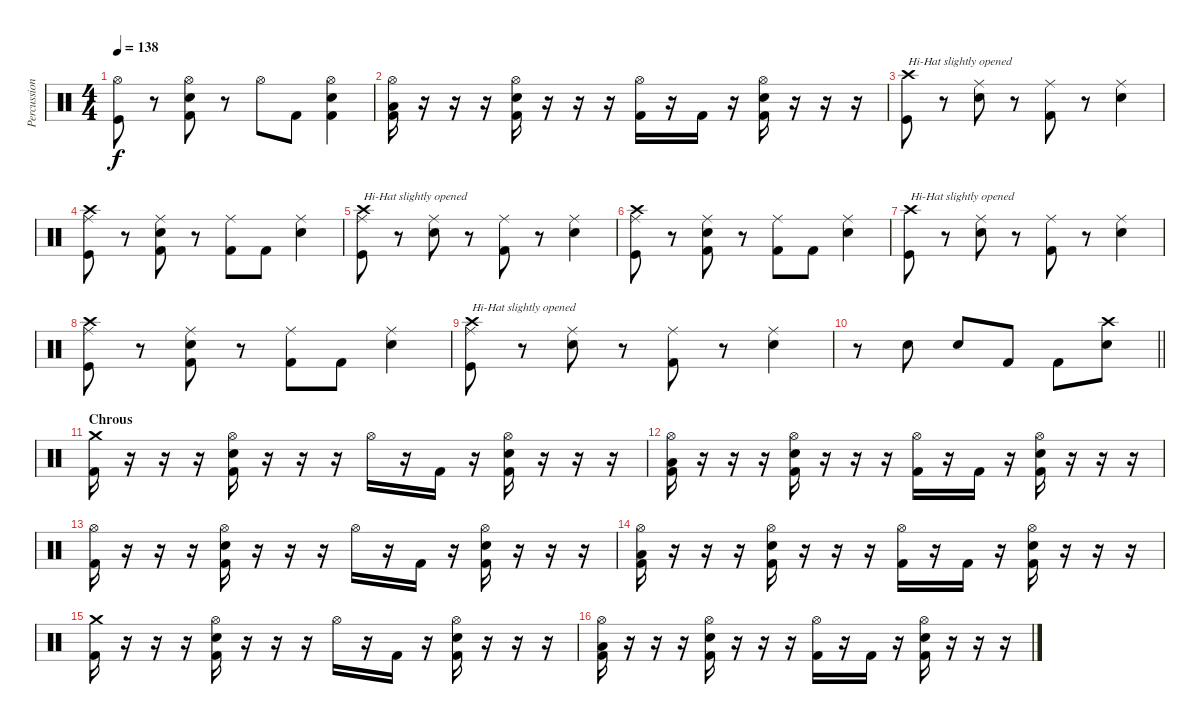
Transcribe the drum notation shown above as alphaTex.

\track ("Percussion" "Percussion") {instrument percussion}
\staff {score}
\articulation defaults
\ts (4 4)
\tempo 138
\clef neutral
\ks c
("Hi-Hat (open)" "Kick (hit)").8{dy f} r.8 ("Hi-Hat (open)" "Electric Snare (hit)" "Kick (hit) 2").8 r.8 "Hi-Hat (open)".8 "Kick (hit) 2".8 ("Hi-Hat (open)" "Electric Snare (hit)" "Kick (hit) 2").4 |
("Hi-Hat (open)" "Low Tom (hit)" "Kick (hit) 2").16 r.16 r.16 r.16 ("Hi-Hat (open)" "Electric Snare (hit)" "Kick (hit) 2").16 r.16 r.16 r.16 ("Hi-Hat (open)" "Kick (hit) 2").16 r.16 "Kick (hit) 2".16 r.16 ("Hi-Hat (open)" "Electric Snare (hit)" "Kick (hit) 2").16 r.16 r.16 r.16 |
("Crash high (hit)" "Kick (hit)").8{txt "Hi-Hat slightly opened"} r.8 ("Ride (middle)" "Electric Snare (hit)").8 r.8 ("Ride (middle)" "Kick (hit) 2").8 r.8 ("Ride (middle)" "Electric Snare (hit)").4 |
("Crash high (hit)" "Ride (middle)" "Kick (hit)").8 r.8 ("Ride (middle)" "Electric Snare (hit)" "Kick (hit) 2").8 r.8 ("Ride (middle)" "Kick (hit) 2").8 "Kick (hit) 2".8 ("Ride (middle)" "Electric Snare (hit)").4 |
("Crash high (hit)" "Ride (middle)" "Kick (hit)").8{txt "Hi-Hat slightly opened"} r.8 ("Ride (middle)" "Electric Snare (hit)").8 r.8 ("Ride (middle)" "Kick (hit) 2").8 r.8 ("Ride (middle)" "Electric Snare (hit)").4 |
("Crash high (hit)" "Ride (middle)" "Kick (hit)").8 r.8 ("Ride (middle)" "Electric Snare (hit)" "Kick (hit) 2").8 r.8 ("Ride (middle)" "Kick (hit) 2").8 "Kick (hit) 2".8 ("Ride (middle)" "Electric Snare (hit)").4 |
("Crash high (hit)" "Kick (hit)").8{txt "Hi-Hat slightly opened"} r.8 ("Ride (middle)" "Electric Snare (hit)").8 r.8 ("Ride (middle)" "Kick (hit) 2").8 r.8 ("Ride (middle)" "Electric Snare (hit)").4 |
("Crash high (hit)" "Ride (middle)" "Kick (hit)").8 r.8 ("Ride (middle)" "Electric Snare (hit)" "Kick (hit) 2").8 r.8 ("Ride (middle)" "Kick (hit) 2").8 "Kick (hit) 2".8 ("Ride (middle)" "Electric Snare (hit)").4 |
("Crash high (hit)" "Ride (middle)" "Kick (hit)").8{txt "Hi-Hat slightly opened"} r.8 ("Ride (middle)" "Electric Snare (hit)").8 r.8 ("Ride (middle)" "Kick (hit) 2").8 r.8 ("Ride (middle)" "Electric Snare (hit)").4 |
\barLineRight lightlight
r.8 "Electric Snare (hit)".8 "Electric Snare (hit)".8 "Kick (hit) 2".8 "Kick (hit) 2".8 ("Electric Snare (hit)" "Crash high (hit)").8 |
\section ("" "Chrous")
("Crash medium (hit)" "Kick (hit) 2").16 r.16 r.16 r.16 ("Hi-Hat (open)" "Electric Snare (hit)" "Kick (hit) 2").16 r.16 r.16 r.16 "Hi-Hat (open)".16 r.16 "Kick (hit) 2".16 r.16 ("Hi-Hat (open)" "Electric Snare (hit)" "Kick (hit) 2").16 r.16 r.16 r.16 |
("Hi-Hat (open)" "Low Tom (hit)" "Kick (hit) 2").16 r.16 r.16 r.16 ("Hi-Hat (open)" "Electric Snare (hit)" "Kick (hit) 2").16 r.16 r.16 r.16 ("Hi-Hat (open)" "Kick (hit) 2").16 r.16 "Kick (hit) 2".16 r.16 ("Hi-Hat (open)" "Electric Snare (hit)" "Kick (hit) 2").16 r.16 r.16 r.16 |
("Hi-Hat (open)" "Kick (hit) 2").16 r.16 r.16 r.16 ("Hi-Hat (open)" "Electric Snare (hit)" "Kick (hit) 2").16 r.16 r.16 r.16 "Hi-Hat (open)".16 r.16 "Kick (hit) 2".16 r.16 ("Hi-Hat (open)" "Electric Snare (hit)" "Kick (hit) 2").16 r.16 r.16 r.16 |
("Hi-Hat (open)" "Low Tom (hit)" "Kick (hit) 2").16 r.16 r.16 r.16 ("Hi-Hat (open)" "Electric Snare (hit)" "Kick (hit) 2").16 r.16 r.16 r.16 ("Hi-Hat (open)" "Kick (hit) 2").16 r.16 "Kick (hit) 2".16 r.16 ("Hi-Hat (open)" "Electric Snare (hit)" "Kick (hit) 2").16 r.16 r.16 r.16 |
("Crash medium (hit)" "Kick (hit) 2").16 r.16 r.16 r.16 ("Hi-Hat (open)" "Electric Snare (hit)" "Kick (hit) 2").16 r.16 r.16 r.16 "Hi-Hat (open)".16 r.16 "Kick (hit) 2".16 r.16 ("Hi-Hat (open)" "Electric Snare (hit)" "Kick (hit) 2").16 r.16 r.16 r.16 |
("Hi-Hat (open)" "Low Tom (hit)" "Kick (hit) 2").16 r.16 r.16 r.16 ("Hi-Hat (open)" "Electric Snare (hit)" "Kick (hit) 2").16 r.16 r.16 r.16 ("Hi-Hat (open)" "Kick (hit) 2").16 r.16 "Kick (hit) 2".16 r.16 ("Hi-Hat (open)" "Electric Snare (hit)" "Kick (hit) 2").16 r.16 r.16 r.16
